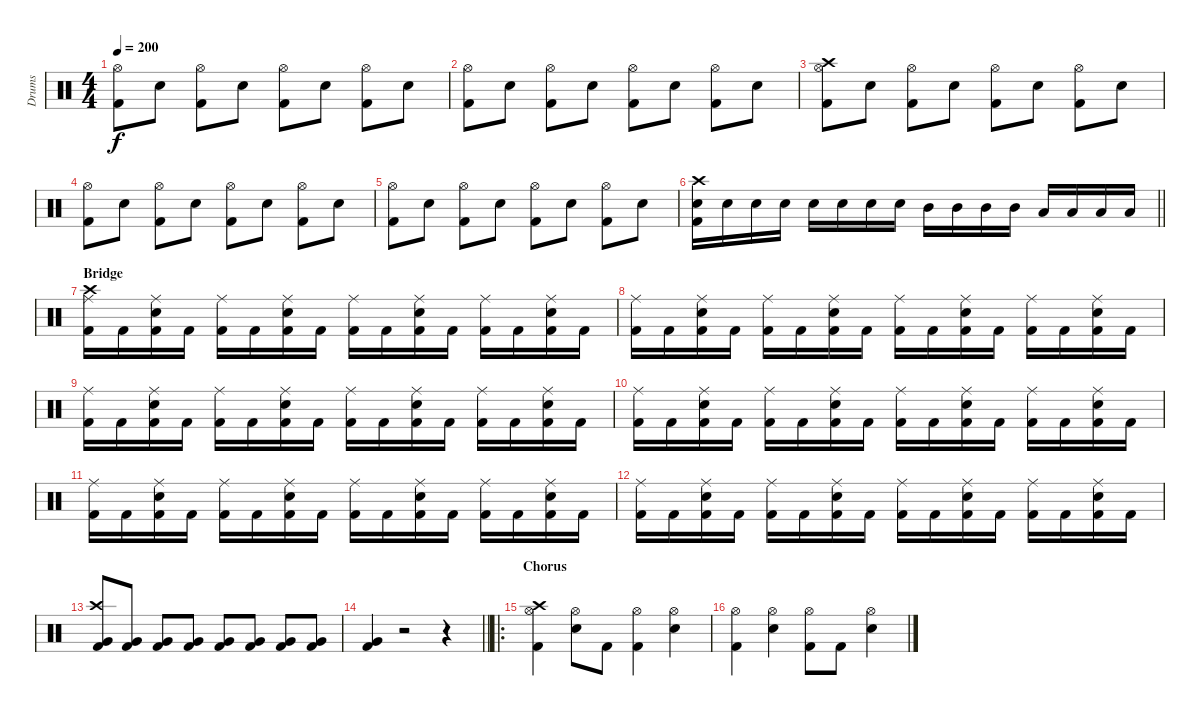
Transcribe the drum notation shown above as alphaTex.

\track ("Drums" "Drums") {instrument percussion}
\staff {score}
\articulation defaults
\ts (4 4)
\tempo 200
\clef neutral
\ks c
("Hi-Hat (open)" "Kick (hit) 2").8{dy f} "Snare (hit) 2".8 ("Hi-Hat (open)" "Kick (hit) 2").8 "Snare (hit) 2".8 ("Hi-Hat (open)" "Kick (hit) 2").8 "Snare (hit) 2".8 ("Hi-Hat (open)" "Kick (hit) 2").8 "Snare (hit) 2".8 |
("Hi-Hat (open)" "Kick (hit) 2").8 "Snare (hit) 2".8 ("Hi-Hat (open)" "Kick (hit) 2").8 "Snare (hit) 2".8 ("Hi-Hat (open)" "Kick (hit) 2").8 "Snare (hit) 2".8 ("Hi-Hat (open)" "Kick (hit) 2").8 "Snare (hit) 2".8 |
("Crash high (hit)" "Hi-Hat (open)" "Kick (hit) 2").8 "Snare (hit) 2".8 ("Hi-Hat (open)" "Kick (hit) 2").8 "Snare (hit) 2".8 ("Hi-Hat (open)" "Kick (hit) 2").8 "Snare (hit) 2".8 ("Hi-Hat (open)" "Kick (hit) 2").8 "Snare (hit) 2".8 |
("Hi-Hat (open)" "Kick (hit) 2").8 "Snare (hit) 2".8 ("Hi-Hat (open)" "Kick (hit) 2").8 "Snare (hit) 2".8 ("Hi-Hat (open)" "Kick (hit) 2").8 "Snare (hit) 2".8 ("Hi-Hat (open)" "Kick (hit) 2").8 "Snare (hit) 2".8 |
("Hi-Hat (open)" "Kick (hit) 2").8 "Snare (hit) 2".8 ("Hi-Hat (open)" "Kick (hit) 2").8 "Snare (hit) 2".8 ("Hi-Hat (open)" "Kick (hit) 2").8 "Snare (hit) 2".8 ("Hi-Hat (open)" "Kick (hit) 2").8 "Snare (hit) 2".8 |
\barLineRight lightlight
("Crash high (hit)" "Snare (hit) 2" "Kick (hit) 2").16 "Snare (hit) 2".16 "Snare (hit) 2".16 "Snare (hit) 2".16 "Snare (hit) 2".16 "Snare (hit) 2".16 "Snare (hit) 2".16 "Snare (hit) 2".16 "Mid Tom (hit)".16 "Mid Tom (hit)".16 "Mid Tom (hit)".16 "Mid Tom (hit)".16 "Low Tom (hit)".16 "Low Tom (hit)".16 "Low Tom (hit)".16 "Low Tom (hit)".16 |
\section ("" "Bridge")
("Crash high (hit)" "Ride (middle)" "Kick (hit) 2").16 "Kick (hit) 2".16 ("Ride (middle)" "Snare (hit) 2" "Kick (hit) 2").16 "Kick (hit) 2".16 ("Ride (middle)" "Kick (hit) 2").16 "Kick (hit) 2".16 ("Ride (middle)" "Snare (hit) 2" "Kick (hit) 2").16 "Kick (hit) 2".16 ("Ride (middle)" "Kick (hit) 2").16 "Kick (hit) 2".16 ("Ride (middle)" "Snare (hit) 2" "Kick (hit) 2").16 "Kick (hit) 2".16 ("Ride (middle)" "Kick (hit) 2").16 "Kick (hit) 2".16 ("Ride (middle)" "Snare (hit) 2" "Kick (hit) 2").16 "Kick (hit) 2".16 |
("Ride (middle)" "Kick (hit) 2").16 "Kick (hit) 2".16 ("Ride (middle)" "Snare (hit) 2" "Kick (hit) 2").16 "Kick (hit) 2".16 ("Ride (middle)" "Kick (hit) 2").16 "Kick (hit) 2".16 ("Ride (middle)" "Snare (hit) 2" "Kick (hit) 2").16 "Kick (hit) 2".16 ("Ride (middle)" "Kick (hit) 2").16 "Kick (hit) 2".16 ("Ride (middle)" "Snare (hit) 2" "Kick (hit) 2").16 "Kick (hit) 2".16 ("Ride (middle)" "Kick (hit) 2").16 "Kick (hit) 2".16 ("Ride (middle)" "Snare (hit) 2" "Kick (hit) 2").16 "Kick (hit) 2".16 |
("Ride (middle)" "Kick (hit) 2").16 "Kick (hit) 2".16 ("Ride (middle)" "Snare (hit) 2" "Kick (hit) 2").16 "Kick (hit) 2".16 ("Ride (middle)" "Kick (hit) 2").16 "Kick (hit) 2".16 ("Ride (middle)" "Snare (hit) 2" "Kick (hit) 2").16 "Kick (hit) 2".16 ("Ride (middle)" "Kick (hit) 2").16 "Kick (hit) 2".16 ("Ride (middle)" "Snare (hit) 2" "Kick (hit) 2").16 "Kick (hit) 2".16 ("Ride (middle)" "Kick (hit) 2").16 "Kick (hit) 2".16 ("Ride (middle)" "Snare (hit) 2" "Kick (hit) 2").16 "Kick (hit) 2".16 |
("Ride (middle)" "Kick (hit) 2").16 "Kick (hit) 2".16 ("Ride (middle)" "Snare (hit) 2" "Kick (hit) 2").16 "Kick (hit) 2".16 ("Ride (middle)" "Kick (hit) 2").16 "Kick (hit) 2".16 ("Ride (middle)" "Snare (hit) 2" "Kick (hit) 2").16 "Kick (hit) 2".16 ("Ride (middle)" "Kick (hit) 2").16 "Kick (hit) 2".16 ("Ride (middle)" "Snare (hit) 2" "Kick (hit) 2").16 "Kick (hit) 2".16 ("Ride (middle)" "Kick (hit) 2").16 "Kick (hit) 2".16 ("Ride (middle)" "Snare (hit) 2" "Kick (hit) 2").16 "Kick (hit) 2".16 |
("Ride (middle)" "Kick (hit) 2").16 "Kick (hit) 2".16 ("Ride (middle)" "Snare (hit) 2" "Kick (hit) 2").16 "Kick (hit) 2".16 ("Ride (middle)" "Kick (hit) 2").16 "Kick (hit) 2".16 ("Ride (middle)" "Snare (hit) 2" "Kick (hit) 2").16 "Kick (hit) 2".16 ("Ride (middle)" "Kick (hit) 2").16 "Kick (hit) 2".16 ("Ride (middle)" "Snare (hit) 2" "Kick (hit) 2").16 "Kick (hit) 2".16 ("Ride (middle)" "Kick (hit) 2").16 "Kick (hit) 2".16 ("Ride (middle)" "Snare (hit) 2" "Kick (hit) 2").16 "Kick (hit) 2".16 |
("Ride (middle)" "Kick (hit) 2").16 "Kick (hit) 2".16 ("Ride (middle)" "Snare (hit) 2" "Kick (hit) 2").16 "Kick (hit) 2".16 ("Ride (middle)" "Kick (hit) 2").16 "Kick (hit) 2".16 ("Ride (middle)" "Snare (hit) 2" "Kick (hit) 2").16 "Kick (hit) 2".16 ("Ride (middle)" "Kick (hit) 2").16 "Kick (hit) 2".16 ("Ride (middle)" "Snare (hit) 2" "Kick (hit) 2").16 "Kick (hit) 2".16 ("Ride (middle)" "Kick (hit) 2").16 "Kick (hit) 2".16 ("Ride (middle)" "Snare (hit) 2" "Kick (hit) 2").16 "Kick (hit) 2".16 |
("Crash high (hit)" "Very Low Tom (hit)" "Kick (hit) 2").8 ("Very Low Tom (hit)" "Kick (hit) 2").8 ("Very Low Tom (hit)" "Kick (hit) 2").8 ("Very Low Tom (hit)" "Kick (hit) 2").8 ("Very Low Tom (hit)" "Kick (hit) 2").8 ("Very Low Tom (hit)" "Kick (hit) 2").8 ("Very Low Tom (hit)" "Kick (hit) 2").8 ("Very Low Tom (hit)" "Kick (hit) 2").8 |
\barLineRight lightlight
("Very Low Tom (hit)" "Kick (hit) 2").4 r.2 r.4 |
\ro
\section ("" "Chorus")
("Crash high (hit)" "Hi-Hat (open)" "Kick (hit) 2").4 ("Hi-Hat (open)" "Snare (hit) 2").8 "Kick (hit) 2".8 ("Hi-Hat (open)" "Kick (hit) 2").4 ("Hi-Hat (open)" "Snare (hit) 2").4 |
("Hi-Hat (open)" "Kick (hit) 2").4 ("Hi-Hat (open)" "Snare (hit) 2").4 ("Hi-Hat (open)" "Kick (hit) 2").8 "Kick (hit) 2".8 ("Hi-Hat (open)" "Snare (hit) 2").4
